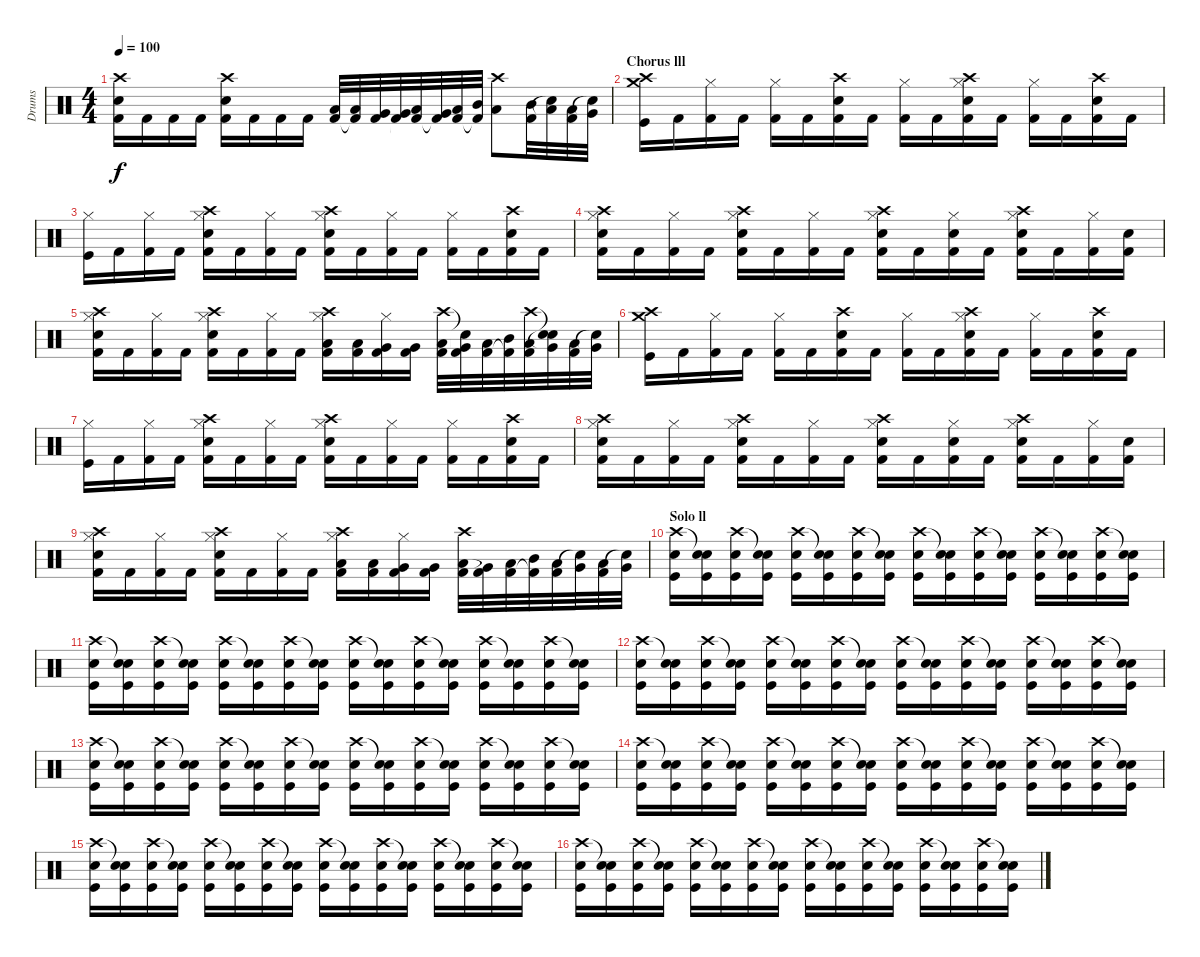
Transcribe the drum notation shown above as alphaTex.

\track ("Drums" "Drums") {instrument percussion}
\staff {score}
\articulation defaults
\ts (4 4)
\tempo 100
\clef neutral
\ks c
("Crash high (hit)" "Electric Snare (hit)" "Kick (hit) 2").16{dy f} "Kick (hit) 2".16 "Kick (hit) 2".16 "Kick (hit) 2".16 ("Crash high (hit)" "Electric Snare (hit)" "Kick (hit) 2").16 "Kick (hit) 2".16 "Kick (hit) 2".16 "Kick (hit) 2".16 ("Low Floor Tom (hit)" "Kick (hit) 2").32 ("Low Floor Tom (hit)" "Kick (hit) 2"{t}).32 ("Very Low Tom (hit)" "Kick (hit) 2").32 ("Very Low Tom (hit)" "Kick (hit) 2"{t}).32 ("Low Floor Tom (hit)" "Kick (hit) 2").32 ("Very Low Tom (hit)" "Kick (hit) 2"{t}).32 ("Low Tom (hit)" "Kick (hit) 2").32 ("Mid Tom (hit)" "Kick (hit) 2"{t}).32 ("Crash high (hit)" "Low Tom (hit)").8 ("Mid Tom (hit)" "Kick (hit) 2").32 ("Low Tom (hit)" "Snare (hit)"{t}).32 ("Low Tom (hit)" "Kick (hit) 2").32 ("Very Low Tom (hit)" "Snare (hit)"{t}).32 |
\section ("" "Chorus lll")
("Crash medium (hit)" "Crash high (hit)" "Kick (hit)").16 "Kick (hit) 2".16 ("Hi-Hat (closed)" "Kick (hit) 2").16 "Kick (hit) 2".16 ("Hi-Hat (closed)" "Kick (hit) 2").16 "Kick (hit) 2".16 ("Crash high (hit)" "Electric Snare (hit)" "Kick (hit) 2").16 "Kick (hit) 2".16 ("Hi-Hat (closed)" "Kick (hit) 2").16 "Kick (hit) 2".16 ("Hi-Hat (closed)" "Crash high (hit)" "Electric Snare (hit)" "Kick (hit) 2").16 "Kick (hit) 2".16 ("Hi-Hat (closed)" "Kick (hit) 2").16 "Kick (hit) 2".16 ("Crash high (hit)" "Electric Snare (hit)" "Kick (hit) 2").16 "Kick (hit) 2".16 |
("Hi-Hat (closed)" "Kick (hit)").16 "Kick (hit) 2".16 ("Hi-Hat (closed)" "Kick (hit) 2").16 "Kick (hit) 2".16 ("Hi-Hat (closed)" "Crash high (hit)" "Electric Snare (hit)" "Kick (hit) 2").16 "Kick (hit) 2".16 ("Hi-Hat (closed)" "Kick (hit) 2").16 "Kick (hit) 2".16 ("Hi-Hat (closed)" "Crash high (hit)" "Electric Snare (hit)" "Kick (hit) 2").16 "Kick (hit) 2".16 ("Hi-Hat (closed)" "Kick (hit) 2").16 "Kick (hit) 2".16 ("Hi-Hat (closed)" "Kick (hit) 2").16 "Kick (hit) 2".16 ("Crash high (hit)" "Electric Snare (hit)" "Kick (hit) 2").16 "Kick (hit) 2".16 |
("Hi-Hat (closed)" "Crash high (hit)" "Electric Snare (hit)" "Kick (hit) 2").16 "Kick (hit) 2".16 ("Hi-Hat (closed)" "Kick (hit) 2").16 "Kick (hit) 2".16 ("Hi-Hat (closed)" "Crash high (hit)" "Electric Snare (hit)" "Kick (hit) 2").16 "Kick (hit) 2".16 ("Hi-Hat (closed)" "Kick (hit) 2").16 "Kick (hit) 2".16 ("Hi-Hat (closed)" "Crash high (hit)" "Electric Snare (hit)" "Kick (hit) 2").16 "Kick (hit) 2".16 ("Hi-Hat (closed)" "Electric Snare (hit)" "Kick (hit) 2").16 "Kick (hit) 2".16 ("Hi-Hat (closed)" "Crash high (hit)" "Electric Snare (hit)" "Kick (hit) 2").16 "Kick (hit) 2".16 ("Hi-Hat (closed)" "Kick (hit) 2").16 ("Electric Snare (hit)" "Kick (hit) 2").16 |
("Hi-Hat (closed)" "Crash high (hit)" "Electric Snare (hit)" "Kick (hit) 2").16 "Kick (hit) 2".16 ("Hi-Hat (closed)" "Kick (hit) 2").16 "Kick (hit) 2".16 ("Hi-Hat (closed)" "Crash high (hit)" "Electric Snare (hit)" "Kick (hit) 2").16 "Kick (hit) 2".16 ("Hi-Hat (closed)" "Kick (hit) 2").16 "Kick (hit) 2".16 ("Hi-Hat (closed)" "Crash high (hit)" "Low Floor Tom (hit)" "Kick (hit) 2").16 ("Low Floor Tom (hit)" "Kick (hit) 2").16 ("Hi-Hat (closed)" "Very Low Tom (hit)" "Kick (hit) 2").16 ("Very Low Tom (hit)" "Kick (hit) 2").16 ("Crash high (hit)" "Low Floor Tom (hit)" "Kick (hit) 2").32 ("Snare (hit)"{t} "Very Low Tom (hit)" "Kick (hit) 2"{t}).32 ("Low Tom (hit)" "Kick (hit) 2").32 ("Mid Tom (hit)" "Kick (hit) 2"{t}).32 ("Crash high (hit)" "Low Tom (hit)" "Kick (hit) 2").32 ("Snare (hit)"{t} "Very Low Tom (hit)" "Snare (hit)"{t}).32 ("Low Floor Tom (hit)" "Kick (hit) 2").32 ("Very Low Tom (hit)" "Snare (hit)"{t}).32 |
("Crash medium (hit)" "Crash high (hit)" "Kick (hit)").16 "Kick (hit) 2".16 ("Hi-Hat (closed)" "Kick (hit) 2").16 "Kick (hit) 2".16 ("Hi-Hat (closed)" "Kick (hit) 2").16 "Kick (hit) 2".16 ("Crash high (hit)" "Electric Snare (hit)" "Kick (hit) 2").16 "Kick (hit) 2".16 ("Hi-Hat (closed)" "Kick (hit) 2").16 "Kick (hit) 2".16 ("Hi-Hat (closed)" "Crash high (hit)" "Electric Snare (hit)" "Kick (hit) 2").16 "Kick (hit) 2".16 ("Hi-Hat (closed)" "Kick (hit) 2").16 "Kick (hit) 2".16 ("Crash high (hit)" "Electric Snare (hit)" "Kick (hit) 2").16 "Kick (hit) 2".16 |
("Hi-Hat (closed)" "Kick (hit)").16 "Kick (hit) 2".16 ("Hi-Hat (closed)" "Kick (hit) 2").16 "Kick (hit) 2".16 ("Hi-Hat (closed)" "Crash high (hit)" "Electric Snare (hit)" "Kick (hit) 2").16 "Kick (hit) 2".16 ("Hi-Hat (closed)" "Kick (hit) 2").16 "Kick (hit) 2".16 ("Hi-Hat (closed)" "Crash high (hit)" "Electric Snare (hit)" "Kick (hit) 2").16 "Kick (hit) 2".16 ("Hi-Hat (closed)" "Kick (hit) 2").16 "Kick (hit) 2".16 ("Hi-Hat (closed)" "Kick (hit) 2").16 "Kick (hit) 2".16 ("Crash high (hit)" "Electric Snare (hit)" "Kick (hit) 2").16 "Kick (hit) 2".16 |
("Hi-Hat (closed)" "Crash high (hit)" "Electric Snare (hit)" "Kick (hit) 2").16 "Kick (hit) 2".16 ("Hi-Hat (closed)" "Kick (hit) 2").16 "Kick (hit) 2".16 ("Hi-Hat (closed)" "Crash high (hit)" "Electric Snare (hit)" "Kick (hit) 2").16 "Kick (hit) 2".16 ("Hi-Hat (closed)" "Kick (hit) 2").16 "Kick (hit) 2".16 ("Hi-Hat (closed)" "Crash high (hit)" "Electric Snare (hit)" "Kick (hit) 2").16 "Kick (hit) 2".16 ("Hi-Hat (closed)" "Electric Snare (hit)" "Kick (hit) 2").16 "Kick (hit) 2".16 ("Hi-Hat (closed)" "Crash high (hit)" "Electric Snare (hit)" "Kick (hit) 2").16 "Kick (hit) 2".16 ("Hi-Hat (closed)" "Kick (hit) 2").16 ("Electric Snare (hit)" "Kick (hit) 2").16 |
("Hi-Hat (closed)" "Crash high (hit)" "Electric Snare (hit)" "Kick (hit) 2").16 "Kick (hit) 2".16 ("Hi-Hat (closed)" "Kick (hit) 2").16 "Kick (hit) 2".16 ("Hi-Hat (closed)" "Crash high (hit)" "Electric Snare (hit)" "Kick (hit) 2").16 "Kick (hit) 2".16 ("Hi-Hat (closed)" "Kick (hit) 2").16 "Kick (hit) 2".16 ("Hi-Hat (closed)" "Crash high (hit)" "Low Floor Tom (hit)" "Kick (hit) 2").16 ("Low Floor Tom (hit)" "Kick (hit) 2").16 ("Hi-Hat (closed)" "Very Low Tom (hit)" "Kick (hit) 2").16 ("Very Low Tom (hit)" "Kick (hit) 2").16 ("Crash high (hit)" "Low Floor Tom (hit)" "Kick (hit) 2").32 ("Very Low Tom (hit)" "Kick (hit) 2"{t}).32 ("Low Tom (hit)" "Kick (hit) 2").32 ("Mid Tom (hit)" "Kick (hit) 2"{t}).32 ("Low Tom (hit)" "Kick (hit) 2").32 ("Very Low Tom (hit)" "Snare (hit)"{t}).32 ("Low Floor Tom (hit)" "Kick (hit) 2").32 ("Very Low Tom (hit)" "Snare (hit)"{t}).32 |
\section ("" "Solo ll")
("Crash high (hit)" "Electric Snare (hit)" "Kick (hit)").16 ("Snare (hit)"{t} "Electric Snare (hit)" "Kick (hit)").16 ("Crash high (hit)" "Electric Snare (hit)" "Kick (hit)").16 ("Snare (hit)"{t} "Electric Snare (hit)" "Kick (hit)").16 ("Crash high (hit)" "Electric Snare (hit)" "Kick (hit)").16 ("Snare (hit)"{t} "Electric Snare (hit)" "Kick (hit)").16 ("Crash high (hit)" "Electric Snare (hit)" "Kick (hit)").16 ("Snare (hit)"{t} "Electric Snare (hit)" "Kick (hit)").16 ("Crash high (hit)" "Electric Snare (hit)" "Kick (hit)").16 ("Snare (hit)"{t} "Electric Snare (hit)" "Kick (hit)").16 ("Crash high (hit)" "Electric Snare (hit)" "Kick (hit)").16 ("Snare (hit)"{t} "Electric Snare (hit)" "Kick (hit)").16 ("Crash high (hit)" "Electric Snare (hit)" "Kick (hit)").16 ("Snare (hit)"{t} "Electric Snare (hit)" "Kick (hit)").16 ("Crash high (hit)" "Electric Snare (hit)" "Kick (hit)").16 ("Snare (hit)"{t} "Electric Snare (hit)" "Kick (hit)").16 |
("Crash high (hit)" "Electric Snare (hit)" "Kick (hit)").16 ("Snare (hit)"{t} "Electric Snare (hit)" "Kick (hit)").16 ("Crash high (hit)" "Electric Snare (hit)" "Kick (hit)").16 ("Snare (hit)"{t} "Electric Snare (hit)" "Kick (hit)").16 ("Crash high (hit)" "Electric Snare (hit)" "Kick (hit)").16 ("Snare (hit)"{t} "Electric Snare (hit)" "Kick (hit)").16 ("Crash high (hit)" "Electric Snare (hit)" "Kick (hit)").16 ("Snare (hit)"{t} "Electric Snare (hit)" "Kick (hit)").16 ("Crash high (hit)" "Electric Snare (hit)" "Kick (hit)").16 ("Snare (hit)"{t} "Electric Snare (hit)" "Kick (hit)").16 ("Crash high (hit)" "Electric Snare (hit)" "Kick (hit)").16 ("Snare (hit)"{t} "Electric Snare (hit)" "Kick (hit)").16 ("Crash high (hit)" "Electric Snare (hit)" "Kick (hit)").16 ("Snare (hit)"{t} "Electric Snare (hit)" "Kick (hit)").16 ("Crash high (hit)" "Electric Snare (hit)" "Kick (hit)").16 ("Snare (hit)"{t} "Electric Snare (hit)" "Kick (hit)").16 |
("Crash high (hit)" "Electric Snare (hit)" "Kick (hit)").16 ("Snare (hit)"{t} "Electric Snare (hit)" "Kick (hit)").16 ("Crash high (hit)" "Electric Snare (hit)" "Kick (hit)").16 ("Snare (hit)"{t} "Electric Snare (hit)" "Kick (hit)").16 ("Crash high (hit)" "Electric Snare (hit)" "Kick (hit)").16 ("Snare (hit)"{t} "Electric Snare (hit)" "Kick (hit)").16 ("Crash high (hit)" "Electric Snare (hit)" "Kick (hit)").16 ("Snare (hit)"{t} "Electric Snare (hit)" "Kick (hit)").16 ("Crash high (hit)" "Electric Snare (hit)" "Kick (hit)").16 ("Snare (hit)"{t} "Electric Snare (hit)" "Kick (hit)").16 ("Crash high (hit)" "Electric Snare (hit)" "Kick (hit)").16 ("Snare (hit)"{t} "Electric Snare (hit)" "Kick (hit)").16 ("Crash high (hit)" "Electric Snare (hit)" "Kick (hit)").16 ("Snare (hit)"{t} "Electric Snare (hit)" "Kick (hit)").16 ("Crash high (hit)" "Electric Snare (hit)" "Kick (hit)").16 ("Snare (hit)"{t} "Electric Snare (hit)" "Kick (hit)").16 |
("Crash high (hit)" "Electric Snare (hit)" "Kick (hit)").16 ("Snare (hit)"{t} "Electric Snare (hit)" "Kick (hit)").16 ("Crash high (hit)" "Electric Snare (hit)" "Kick (hit)").16 ("Snare (hit)"{t} "Electric Snare (hit)" "Kick (hit)").16 ("Crash high (hit)" "Electric Snare (hit)" "Kick (hit)").16 ("Snare (hit)"{t} "Electric Snare (hit)" "Kick (hit)").16 ("Crash high (hit)" "Electric Snare (hit)" "Kick (hit)").16 ("Snare (hit)"{t} "Electric Snare (hit)" "Kick (hit)").16 ("Crash high (hit)" "Electric Snare (hit)" "Kick (hit)").16 ("Snare (hit)"{t} "Electric Snare (hit)" "Kick (hit)").16 ("Crash high (hit)" "Electric Snare (hit)" "Kick (hit)").16 ("Snare (hit)"{t} "Electric Snare (hit)" "Kick (hit)").16 ("Crash high (hit)" "Electric Snare (hit)" "Kick (hit)").16 ("Snare (hit)"{t} "Electric Snare (hit)" "Kick (hit)").16 ("Crash high (hit)" "Electric Snare (hit)" "Kick (hit)").16 ("Snare (hit)"{t} "Electric Snare (hit)" "Kick (hit)").16 |
("Crash high (hit)" "Electric Snare (hit)" "Kick (hit)").16 ("Snare (hit)"{t} "Electric Snare (hit)" "Kick (hit)").16 ("Crash high (hit)" "Electric Snare (hit)" "Kick (hit)").16 ("Snare (hit)"{t} "Electric Snare (hit)" "Kick (hit)").16 ("Crash high (hit)" "Electric Snare (hit)" "Kick (hit)").16 ("Snare (hit)"{t} "Electric Snare (hit)" "Kick (hit)").16 ("Crash high (hit)" "Electric Snare (hit)" "Kick (hit)").16 ("Snare (hit)"{t} "Electric Snare (hit)" "Kick (hit)").16 ("Crash high (hit)" "Electric Snare (hit)" "Kick (hit)").16 ("Snare (hit)"{t} "Electric Snare (hit)" "Kick (hit)").16 ("Crash high (hit)" "Electric Snare (hit)" "Kick (hit)").16 ("Snare (hit)"{t} "Electric Snare (hit)" "Kick (hit)").16 ("Crash high (hit)" "Electric Snare (hit)" "Kick (hit)").16 ("Snare (hit)"{t} "Electric Snare (hit)" "Kick (hit)").16 ("Crash high (hit)" "Electric Snare (hit)" "Kick (hit)").16 ("Snare (hit)"{t} "Electric Snare (hit)" "Kick (hit)").16 |
("Crash high (hit)" "Electric Snare (hit)" "Kick (hit)").16 ("Snare (hit)"{t} "Electric Snare (hit)" "Kick (hit)").16 ("Crash high (hit)" "Electric Snare (hit)" "Kick (hit)").16 ("Snare (hit)"{t} "Electric Snare (hit)" "Kick (hit)").16 ("Crash high (hit)" "Electric Snare (hit)" "Kick (hit)").16 ("Snare (hit)"{t} "Electric Snare (hit)" "Kick (hit)").16 ("Crash high (hit)" "Electric Snare (hit)" "Kick (hit)").16 ("Snare (hit)"{t} "Electric Snare (hit)" "Kick (hit)").16 ("Crash high (hit)" "Electric Snare (hit)" "Kick (hit)").16 ("Snare (hit)"{t} "Electric Snare (hit)" "Kick (hit)").16 ("Crash high (hit)" "Electric Snare (hit)" "Kick (hit)").16 ("Snare (hit)"{t} "Electric Snare (hit)" "Kick (hit)").16 ("Crash high (hit)" "Electric Snare (hit)" "Kick (hit)").16 ("Snare (hit)"{t} "Electric Snare (hit)" "Kick (hit)").16 ("Crash high (hit)" "Electric Snare (hit)" "Kick (hit)").16 ("Snare (hit)"{t} "Electric Snare (hit)" "Kick (hit)").16 |
("Crash high (hit)" "Electric Snare (hit)" "Kick (hit)").16 ("Snare (hit)"{t} "Electric Snare (hit)" "Kick (hit)").16 ("Crash high (hit)" "Electric Snare (hit)" "Kick (hit)").16 ("Snare (hit)"{t} "Electric Snare (hit)" "Kick (hit)").16 ("Crash high (hit)" "Electric Snare (hit)" "Kick (hit)").16 ("Snare (hit)"{t} "Electric Snare (hit)" "Kick (hit)").16 ("Crash high (hit)" "Electric Snare (hit)" "Kick (hit)").16 ("Snare (hit)"{t} "Electric Snare (hit)" "Kick (hit)").16 ("Crash high (hit)" "Electric Snare (hit)" "Kick (hit)").16 ("Snare (hit)"{t} "Electric Snare (hit)" "Kick (hit)").16 ("Crash high (hit)" "Electric Snare (hit)" "Kick (hit)").16 ("Snare (hit)"{t} "Electric Snare (hit)" "Kick (hit)").16 ("Crash high (hit)" "Electric Snare (hit)" "Kick (hit)").16 ("Snare (hit)"{t} "Electric Snare (hit)" "Kick (hit)").16 ("Crash high (hit)" "Electric Snare (hit)" "Kick (hit)").16 ("Snare (hit)"{t} "Electric Snare (hit)" "Kick (hit)").16
